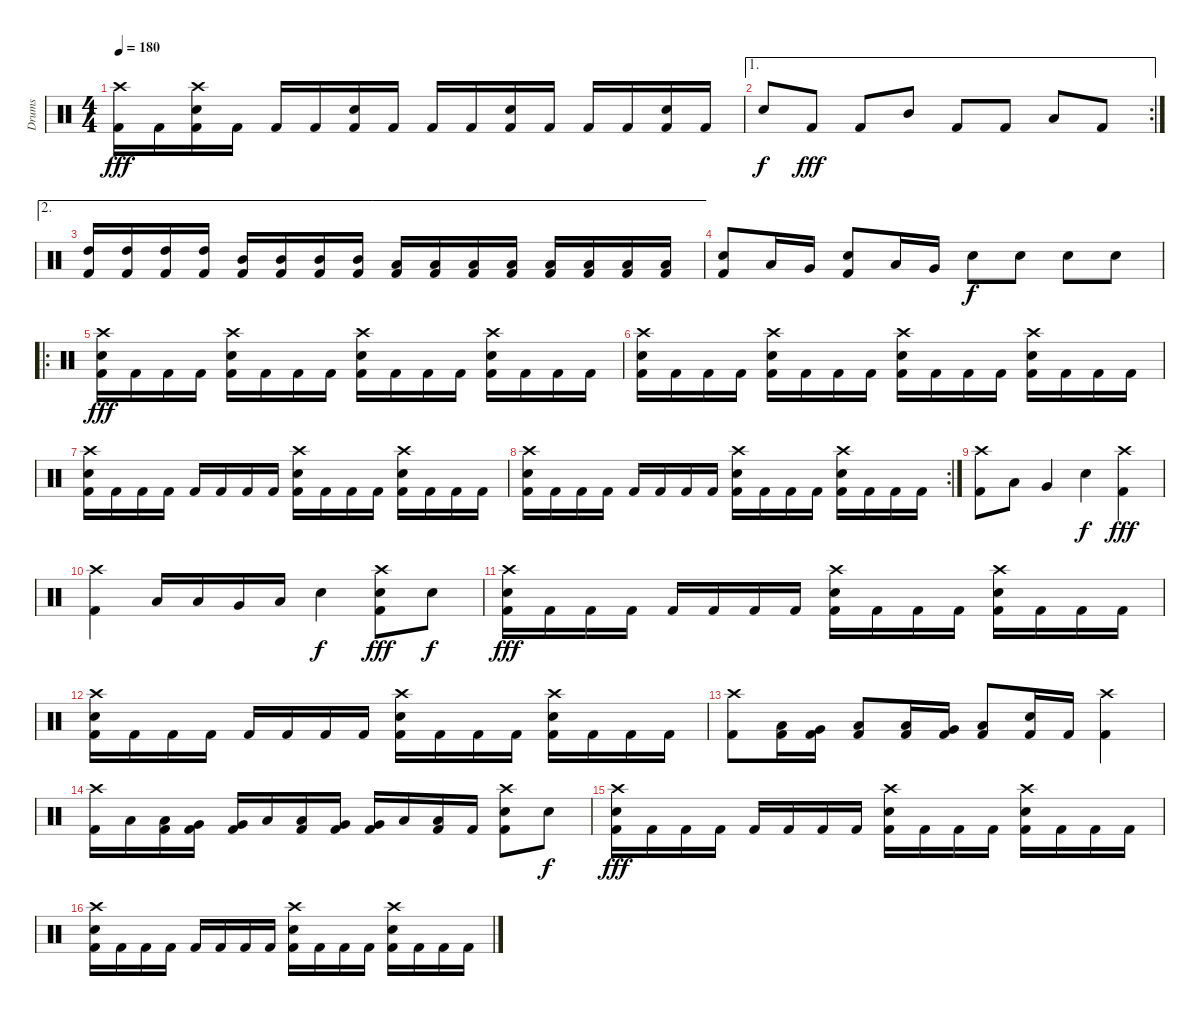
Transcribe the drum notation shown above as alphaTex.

\track ("Drums" "Drums") {instrument percussion}
\staff {score}
\articulation defaults
\ts (4 4)
\tempo 180
\clef neutral
\ks c
("Crash high (hit)" "Kick (hit) 2").16{dy fff} "Kick (hit) 2".16 ("Crash high (hit)" "Snare (hit) 2" "Kick (hit) 2").16 "Kick (hit) 2".16 "Kick (hit) 2".16 "Kick (hit) 2".16 ("Snare (hit) 2" "Kick (hit) 2").16 "Kick (hit) 2".16 "Kick (hit) 2".16 "Kick (hit) 2".16 ("Snare (hit) 2" "Kick (hit) 2").16 "Kick (hit) 2".16 "Kick (hit) 2".16 "Kick (hit) 2".16 ("Snare (hit) 2" "Kick (hit) 2").16 "Kick (hit) 2".16 |
\ae 1
\rc 2 "Snare (hit) 2".8{dy f} "Kick (hit) 2".8{dy fff} "Kick (hit) 2".8 "Mid Tom (hit)".8 "Kick (hit) 2".8 "Kick (hit) 2".8 "Low Tom (hit)".8 "Kick (hit) 2".8
|
\ae 2
("High Tom (hit)" "Kick (hit) 2").16 ("High Tom (hit)" "Kick (hit) 2").16 ("High Tom (hit)" "Kick (hit) 2").16 ("High Tom (hit)" "Kick (hit) 2").16 ("Mid Tom (hit)" "Kick (hit) 2").16 ("Mid Tom (hit)" "Kick (hit) 2").16 ("Mid Tom (hit)" "Kick (hit) 2").16 ("Mid Tom (hit)" "Kick (hit) 2").16 ("Low Tom (hit)" "Kick (hit) 2").16 ("Low Tom (hit)" "Kick (hit) 2").16 ("Low Tom (hit)" "Kick (hit) 2").16 ("Low Tom (hit)" "Kick (hit) 2").16 ("Low Floor Tom (hit)" "Kick (hit) 2").16 ("Low Floor Tom (hit)" "Kick (hit) 2").16 ("Low Floor Tom (hit)" "Kick (hit) 2").16 ("Low Floor Tom (hit)" "Kick (hit) 2").16 |
("Snare (hit) 2" "Kick (hit) 2").8 "Low Tom (hit)".16 "Very Low Tom (hit)".16 ("Snare (hit) 2" "Kick (hit) 2").8 "Low Tom (hit)".16 "Very Low Tom (hit)".16 "Snare (hit) 2".8{dy f} "Snare (hit) 2".8 "Snare (hit) 2".8 "Snare (hit) 2".8 |
\ro
("Crash high (hit)" "Snare (hit) 2" "Kick (hit) 2").16{dy fff} "Kick (hit) 2".16 "Kick (hit) 2".16 "Kick (hit) 2".16 ("Crash high (hit)" "Snare (hit) 2" "Kick (hit) 2").16 "Kick (hit) 2".16 "Kick (hit) 2".16 "Kick (hit) 2".16 ("Crash high (hit)" "Snare (hit) 2" "Kick (hit) 2").16 "Kick (hit) 2".16 "Kick (hit) 2".16 "Kick (hit) 2".16 ("Crash high (hit)" "Snare (hit) 2" "Kick (hit) 2").16 "Kick (hit) 2".16 "Kick (hit) 2".16 "Kick (hit) 2".16 |
("Crash high (hit)" "Snare (hit) 2" "Kick (hit) 2").16 "Kick (hit) 2".16 "Kick (hit) 2".16 "Kick (hit) 2".16 ("Crash high (hit)" "Snare (hit) 2" "Kick (hit) 2").16 "Kick (hit) 2".16 "Kick (hit) 2".16 "Kick (hit) 2".16 ("Crash high (hit)" "Snare (hit) 2" "Kick (hit) 2").16 "Kick (hit) 2".16 "Kick (hit) 2".16 "Kick (hit) 2".16 ("Crash high (hit)" "Snare (hit) 2" "Kick (hit) 2").16 "Kick (hit) 2".16 "Kick (hit) 2".16 "Kick (hit) 2".16 |
("Crash high (hit)" "Snare (hit) 2" "Kick (hit) 2").16 "Kick (hit) 2".16 "Kick (hit) 2".16 "Kick (hit) 2".16 "Kick (hit) 2".16 "Kick (hit) 2".16 "Kick (hit) 2".16 "Kick (hit) 2".16 ("Crash high (hit)" "Snare (hit) 2" "Kick (hit) 2").16 "Kick (hit) 2".16 "Kick (hit) 2".16 "Kick (hit) 2".16 ("Crash high (hit)" "Snare (hit) 2" "Kick (hit) 2").16 "Kick (hit) 2".16 "Kick (hit) 2".16 "Kick (hit) 2".16 |
\rc 2
("Crash high (hit)" "Snare (hit) 2" "Kick (hit) 2").16 "Kick (hit) 2".16 "Kick (hit) 2".16 "Kick (hit) 2".16 "Kick (hit) 2".16 "Kick (hit) 2".16 "Kick (hit) 2".16 "Kick (hit) 2".16 ("Crash high (hit)" "Snare (hit) 2" "Kick (hit) 2").16 "Kick (hit) 2".16 "Kick (hit) 2".16 "Kick (hit) 2".16 ("Crash high (hit)" "Snare (hit) 2" "Kick (hit) 2").16 "Kick (hit) 2".16 "Kick (hit) 2".16 "Kick (hit) 2".16 |
("Crash high (hit)" "Kick (hit) 2").8 "Low Tom (hit)".8 "Very Low Tom (hit)".4 "Snare (hit) 2".4{dy f} ("Crash high (hit)" "Kick (hit) 2").4{dy fff} |
("Crash high (hit)" "Kick (hit) 2").4 "Low Floor Tom (hit)".16 "Low Floor Tom (hit)".16 "Very Low Tom (hit)".16 "Low Tom (hit)".16 "Snare (hit) 2".4{dy f} ("Crash high (hit)" "Snare (hit) 2" "Kick (hit) 2").8{dy fff} "Snare (hit) 2".8{dy f} |
("Crash high (hit)" "Snare (hit) 2" "Kick (hit) 2").16{dy fff} "Kick (hit) 2".16 "Kick (hit) 2".16 "Kick (hit) 2".16 "Kick (hit) 2".16 "Kick (hit) 2".16 "Kick (hit) 2".16 "Kick (hit) 2".16 ("Crash high (hit)" "Snare (hit) 2" "Kick (hit) 2").16 "Kick (hit) 2".16 "Kick (hit) 2".16 "Kick (hit) 2".16 ("Crash high (hit)" "Snare (hit) 2" "Kick (hit) 2").16 "Kick (hit) 2".16 "Kick (hit) 2".16 "Kick (hit) 2".16 |
("Crash high (hit)" "Snare (hit) 2" "Kick (hit) 2").16 "Kick (hit) 2".16 "Kick (hit) 2".16 "Kick (hit) 2".16 "Kick (hit) 2".16 "Kick (hit) 2".16 "Kick (hit) 2".16 "Kick (hit) 2".16 ("Crash high (hit)" "Snare (hit) 2" "Kick (hit) 2").16 "Kick (hit) 2".16 "Kick (hit) 2".16 "Kick (hit) 2".16 ("Crash high (hit)" "Snare (hit) 2" "Kick (hit) 2").16 "Kick (hit) 2".16 "Kick (hit) 2".16 "Kick (hit) 2".16 |
("Crash high (hit)" "Kick (hit) 2").8 ("Low Tom (hit)" "Kick (hit) 2").16 ("Very Low Tom (hit)" "Kick (hit) 2").16 ("Low Floor Tom (hit)" "Kick (hit) 2").8 ("Low Tom (hit)" "Kick (hit) 2").16 ("Very Low Tom (hit)" "Kick (hit) 2").16 ("Low Floor Tom (hit)" "Kick (hit) 2").8 ("Snare (hit) 2" "Kick (hit) 2").16 "Kick (hit) 2".16 ("Crash high (hit)" "Kick (hit) 2").4 |
("Crash high (hit)" "Kick (hit) 2").16 "Low Floor Tom (hit)".16 ("Low Floor Tom (hit)" "Kick (hit) 2").16 ("Very Low Tom (hit)" "Kick (hit) 2").16 ("Very Low Tom (hit)" "Kick (hit) 2").16 "Low Tom (hit)".16 ("Low Tom (hit)" "Kick (hit) 2").16 ("Very Low Tom (hit)" "Kick (hit) 2").16 ("Very Low Tom (hit)" "Kick (hit) 2").16 "Low Floor Tom (hit)".16 ("Low Floor Tom (hit)" "Kick (hit) 2").16 "Kick (hit) 2".16 ("Crash high (hit)" "Snare (hit) 2" "Kick (hit) 2").8 "Snare (hit) 2".8{dy f} |
("Crash high (hit)" "Snare (hit) 2" "Kick (hit) 2").16{dy fff} "Kick (hit) 2".16 "Kick (hit) 2".16 "Kick (hit) 2".16 "Kick (hit) 2".16 "Kick (hit) 2".16 "Kick (hit) 2".16 "Kick (hit) 2".16 ("Crash high (hit)" "Snare (hit) 2" "Kick (hit) 2").16 "Kick (hit) 2".16 "Kick (hit) 2".16 "Kick (hit) 2".16 ("Crash high (hit)" "Snare (hit) 2" "Kick (hit) 2").16 "Kick (hit) 2".16 "Kick (hit) 2".16 "Kick (hit) 2".16 |
("Crash high (hit)" "Snare (hit) 2" "Kick (hit) 2").16 "Kick (hit) 2".16 "Kick (hit) 2".16 "Kick (hit) 2".16 "Kick (hit) 2".16 "Kick (hit) 2".16 "Kick (hit) 2".16 "Kick (hit) 2".16 ("Crash high (hit)" "Snare (hit) 2" "Kick (hit) 2").16 "Kick (hit) 2".16 "Kick (hit) 2".16 "Kick (hit) 2".16 ("Crash high (hit)" "Snare (hit) 2" "Kick (hit) 2").16 "Kick (hit) 2".16 "Kick (hit) 2".16 "Kick (hit) 2".16
